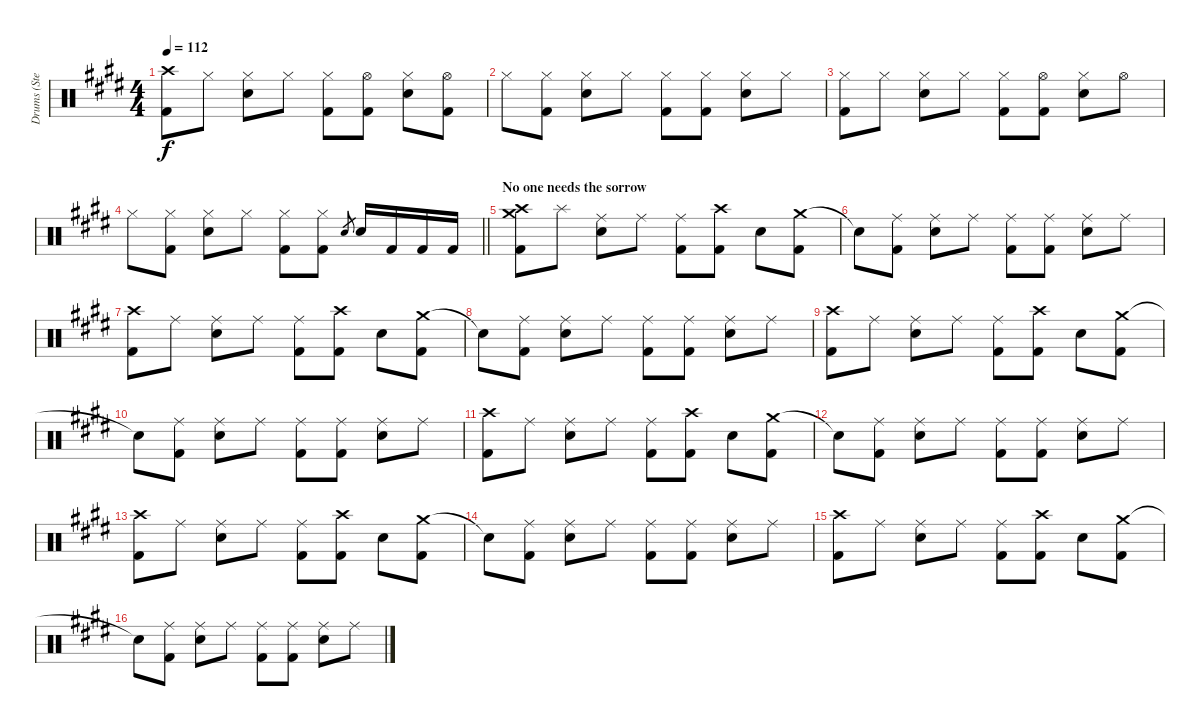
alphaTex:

\track ("Drums (Steven)" "Drums (Ste") {instrument percussion}
\staff {score}
\articulation defaults
\ts (4 4)
\tempo 112
\clef neutral
\ks e
("Crash high (hit)" "Kick (hit) 2").8{dy f} "Hi-Hat (closed)".8 ("Hi-Hat (closed)" "Snare (hit) 2").8 "Hi-Hat (closed)".8 ("Hi-Hat (closed)" "Kick (hit) 2").8 ("Hi-Hat (open)" "Kick (hit) 2").8 ("Hi-Hat (closed)" "Snare (hit) 2").8 ("Hi-Hat (open)" "Kick (hit) 2").8 |
"Hi-Hat (closed)".8 ("Hi-Hat (closed)" "Kick (hit) 2").8 ("Hi-Hat (closed)" "Snare (hit) 2").8 "Hi-Hat (closed)".8 ("Hi-Hat (closed)" "Kick (hit) 2").8 ("Hi-Hat (closed)" "Kick (hit) 2").8 ("Hi-Hat (closed)" "Snare (hit) 2").8 "Hi-Hat (closed)".8 |
("Hi-Hat (closed)" "Kick (hit) 2").8 "Hi-Hat (closed)".8 ("Hi-Hat (closed)" "Snare (hit) 2").8 "Hi-Hat (closed)".8 ("Hi-Hat (closed)" "Kick (hit) 2").8 ("Hi-Hat (open)" "Kick (hit) 2").8 ("Hi-Hat (closed)" "Snare (hit) 2").8 "Hi-Hat (open)".8 |
\barLineRight lightlight "Hi-Hat (closed)".8
("Hi-Hat (closed)" "Kick (hit) 2").8 ("Hi-Hat (closed)" "Snare (hit) 2").8 "Hi-Hat (closed)".8 ("Hi-Hat (closed)" "Kick (hit) 2").8 ("Hi-Hat (closed)" "Kick (hit) 2").8 "Snare (hit) 2".8{gr} "Snare (hit) 2".16 "Kick (hit) 2".16 "Kick (hit) 2".16 "Kick (hit) 2".16 |
\section ("" "No one needs the sorrow")
("Crash high (hit)" "Crash medium (hit)" "Kick (hit) 2").8 "Splash (hit)".8 ("Ride (middle)" "Snare (hit) 2").8 "Ride (middle)".8 ("Ride (middle)" "Kick (hit) 2").8 ("Crash high (hit)" "Kick (hit) 2").8 "Snare (hit) 2".8 ("Crash medium (hit)" "Kick (hit) 2").8 |
"Snare (hit)"{t}.8 ("Ride (middle)" "Kick (hit) 2").8 ("Ride (middle)" "Snare (hit) 2").8 "Ride (middle)".8 ("Ride (middle)" "Kick (hit) 2").8 ("Ride (middle)" "Kick (hit) 2").8 ("Ride (middle)" "Snare (hit) 2").8 "Ride (middle)".8 |
("Crash high (hit)" "Kick (hit) 2").8 "Ride (middle)".8 ("Ride (middle)" "Snare (hit) 2").8 "Ride (middle)".8 ("Ride (middle)" "Kick (hit) 2").8 ("Crash high (hit)" "Kick (hit) 2").8 "Snare (hit) 2".8 ("Crash medium (hit)" "Kick (hit) 2").8 |
"Snare (hit)"{t}.8 ("Ride (middle)" "Kick (hit) 2").8 ("Ride (middle)" "Snare (hit) 2").8 "Ride (middle)".8 ("Ride (middle)" "Kick (hit) 2").8 ("Ride (middle)" "Kick (hit) 2").8 ("Ride (middle)" "Snare (hit) 2").8 "Ride (middle)".8 |
("Crash high (hit)" "Kick (hit) 2").8 "Ride (middle)".8 ("Ride (middle)" "Snare (hit) 2").8 "Ride (middle)".8 ("Ride (middle)" "Kick (hit) 2").8 ("Crash high (hit)" "Kick (hit) 2").8 "Snare (hit) 2".8 ("Crash medium (hit)" "Kick (hit) 2").8 |
"Snare (hit)"{t}.8 ("Ride (middle)" "Kick (hit) 2").8 ("Ride (middle)" "Snare (hit) 2").8 "Ride (middle)".8 ("Ride (middle)" "Kick (hit) 2").8 ("Ride (middle)" "Kick (hit) 2").8 ("Ride (middle)" "Snare (hit) 2").8 "Ride (middle)".8 |
("Crash high (hit)" "Kick (hit) 2").8 "Ride (middle)".8 ("Ride (middle)" "Snare (hit) 2").8 "Ride (middle)".8 ("Ride (middle)" "Kick (hit) 2").8 ("Crash high (hit)" "Kick (hit) 2").8 "Snare (hit) 2".8 ("Crash medium (hit)" "Kick (hit) 2").8 |
"Snare (hit)"{t}.8 ("Ride (middle)" "Kick (hit) 2").8 ("Ride (middle)" "Snare (hit) 2").8 "Ride (middle)".8 ("Ride (middle)" "Kick (hit) 2").8 ("Ride (middle)" "Kick (hit) 2").8 ("Ride (middle)" "Snare (hit) 2").8 "Ride (middle)".8 |
("Crash high (hit)" "Kick (hit) 2").8 "Ride (middle)".8 ("Ride (middle)" "Snare (hit) 2").8 "Ride (middle)".8 ("Ride (middle)" "Kick (hit) 2").8 ("Crash high (hit)" "Kick (hit) 2").8 "Snare (hit) 2".8 ("Crash medium (hit)" "Kick (hit) 2").8 |
"Snare (hit)"{t}.8 ("Ride (middle)" "Kick (hit) 2").8 ("Ride (middle)" "Snare (hit) 2").8 "Ride (middle)".8 ("Ride (middle)" "Kick (hit) 2").8 ("Ride (middle)" "Kick (hit) 2").8 ("Ride (middle)" "Snare (hit) 2").8 "Ride (middle)".8 |
("Crash high (hit)" "Kick (hit) 2").8 "Ride (middle)".8 ("Ride (middle)" "Snare (hit) 2").8 "Ride (middle)".8 ("Ride (middle)" "Kick (hit) 2").8 ("Crash high (hit)" "Kick (hit) 2").8 "Snare (hit) 2".8 ("Crash medium (hit)" "Kick (hit) 2").8 |
"Snare (hit)"{t}.8 ("Ride (middle)" "Kick (hit) 2").8 ("Ride (middle)" "Snare (hit) 2").8 "Ride (middle)".8 ("Ride (middle)" "Kick (hit) 2").8 ("Ride (middle)" "Kick (hit) 2").8 ("Ride (middle)" "Snare (hit) 2").8 "Ride (middle)".8
